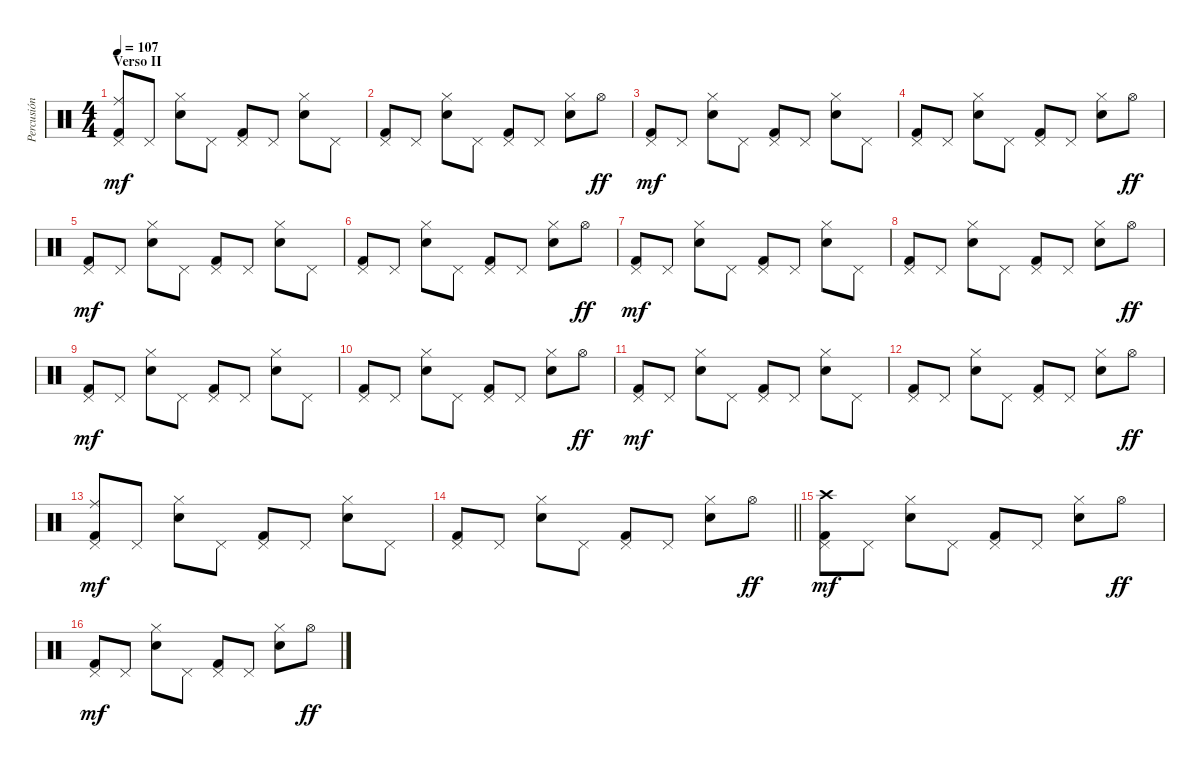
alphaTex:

\track ("Percusión" "Percusión") {instrument percussion}
\staff {score}
\articulation defaults
\ts (4 4)
\section ("" "Verso II")
\tempo 107
\clef neutral
\ks c
("Ride (middle)" "Pedal Hi-Hat (hit)" "Kick (hit) 2").8{dy mf} "Pedal Hi-Hat (hit)".8 ("Hi-Hat (closed)" "Snare (hit) 2").8 "Pedal Hi-Hat (hit)".8 ("Pedal Hi-Hat (hit)" "Kick (hit) 2").8 "Pedal Hi-Hat (hit)".8 ("Hi-Hat (closed)" "Snare (hit) 2").8 "Pedal Hi-Hat (hit)".8 |
("Pedal Hi-Hat (hit)" "Kick (hit) 2").8 "Pedal Hi-Hat (hit)".8 ("Hi-Hat (closed)" "Snare (hit) 2").8 "Pedal Hi-Hat (hit)".8 ("Pedal Hi-Hat (hit)" "Kick (hit) 2").8 "Pedal Hi-Hat (hit)".8 ("Hi-Hat (closed)" "Snare (hit) 2").8 "Hi-Hat (open)".8{dy ff} |
("Pedal Hi-Hat (hit)" "Kick (hit) 2").8{dy mf} "Pedal Hi-Hat (hit)".8 ("Hi-Hat (closed)" "Snare (hit) 2").8 "Pedal Hi-Hat (hit)".8 ("Pedal Hi-Hat (hit)" "Kick (hit) 2").8 "Pedal Hi-Hat (hit)".8 ("Hi-Hat (closed)" "Snare (hit) 2").8 "Pedal Hi-Hat (hit)".8 |
("Pedal Hi-Hat (hit)" "Kick (hit) 2").8 "Pedal Hi-Hat (hit)".8 ("Hi-Hat (closed)" "Snare (hit) 2").8 "Pedal Hi-Hat (hit)".8 ("Pedal Hi-Hat (hit)" "Kick (hit) 2").8 "Pedal Hi-Hat (hit)".8 ("Hi-Hat (closed)" "Snare (hit) 2").8 "Hi-Hat (open)".8{dy ff} |
("Pedal Hi-Hat (hit)" "Kick (hit) 2").8{dy mf} "Pedal Hi-Hat (hit)".8 ("Hi-Hat (closed)" "Snare (hit) 2").8 "Pedal Hi-Hat (hit)".8 ("Pedal Hi-Hat (hit)" "Kick (hit) 2").8 "Pedal Hi-Hat (hit)".8 ("Hi-Hat (closed)" "Snare (hit) 2").8 "Pedal Hi-Hat (hit)".8 |
("Pedal Hi-Hat (hit)" "Kick (hit) 2").8 "Pedal Hi-Hat (hit)".8 ("Hi-Hat (closed)" "Snare (hit) 2").8 "Pedal Hi-Hat (hit)".8 ("Pedal Hi-Hat (hit)" "Kick (hit) 2").8 "Pedal Hi-Hat (hit)".8 ("Hi-Hat (closed)" "Snare (hit) 2").8 "Hi-Hat (open)".8{dy ff} |
("Pedal Hi-Hat (hit)" "Kick (hit) 2").8{dy mf} "Pedal Hi-Hat (hit)".8 ("Hi-Hat (closed)" "Snare (hit) 2").8 "Pedal Hi-Hat (hit)".8 ("Pedal Hi-Hat (hit)" "Kick (hit) 2").8 "Pedal Hi-Hat (hit)".8 ("Hi-Hat (closed)" "Snare (hit) 2").8 "Pedal Hi-Hat (hit)".8 |
("Pedal Hi-Hat (hit)" "Kick (hit) 2").8 "Pedal Hi-Hat (hit)".8 ("Hi-Hat (closed)" "Snare (hit) 2").8 "Pedal Hi-Hat (hit)".8 ("Pedal Hi-Hat (hit)" "Kick (hit) 2").8 "Pedal Hi-Hat (hit)".8 ("Hi-Hat (closed)" "Snare (hit) 2").8 "Hi-Hat (open)".8{dy ff} |
("Pedal Hi-Hat (hit)" "Kick (hit) 2").8{dy mf} "Pedal Hi-Hat (hit)".8 ("Hi-Hat (closed)" "Snare (hit) 2").8 "Pedal Hi-Hat (hit)".8 ("Pedal Hi-Hat (hit)" "Kick (hit) 2").8 "Pedal Hi-Hat (hit)".8 ("Hi-Hat (closed)" "Snare (hit) 2").8 "Pedal Hi-Hat (hit)".8 |
("Pedal Hi-Hat (hit)" "Kick (hit) 2").8 "Pedal Hi-Hat (hit)".8 ("Hi-Hat (closed)" "Snare (hit) 2").8 "Pedal Hi-Hat (hit)".8 ("Pedal Hi-Hat (hit)" "Kick (hit) 2").8 "Pedal Hi-Hat (hit)".8 ("Hi-Hat (closed)" "Snare (hit) 2").8 "Hi-Hat (open)".8{dy ff} |
("Pedal Hi-Hat (hit)" "Kick (hit) 2").8{dy mf} "Pedal Hi-Hat (hit)".8 ("Hi-Hat (closed)" "Snare (hit) 2").8 "Pedal Hi-Hat (hit)".8 ("Pedal Hi-Hat (hit)" "Kick (hit) 2").8 "Pedal Hi-Hat (hit)".8 ("Hi-Hat (closed)" "Snare (hit) 2").8 "Pedal Hi-Hat (hit)".8 |
("Pedal Hi-Hat (hit)" "Kick (hit) 2").8 "Pedal Hi-Hat (hit)".8 ("Hi-Hat (closed)" "Snare (hit) 2").8 "Pedal Hi-Hat (hit)".8 ("Pedal Hi-Hat (hit)" "Kick (hit) 2").8 "Pedal Hi-Hat (hit)".8 ("Hi-Hat (closed)" "Snare (hit) 2").8 "Hi-Hat (open)".8{dy ff} |
("Ride (middle)" "Pedal Hi-Hat (hit)" "Kick (hit) 2").8{dy mf} "Pedal Hi-Hat (hit)".8 ("Hi-Hat (closed)" "Snare (hit) 2").8 "Pedal Hi-Hat (hit)".8 ("Pedal Hi-Hat (hit)" "Kick (hit) 2").8 "Pedal Hi-Hat (hit)".8 ("Hi-Hat (closed)" "Snare (hit) 2").8 "Pedal Hi-Hat (hit)".8 |
\barLineRight lightlight
("Pedal Hi-Hat (hit)" "Kick (hit) 2").8 "Pedal Hi-Hat (hit)".8 ("Hi-Hat (closed)" "Snare (hit) 2").8 "Pedal Hi-Hat (hit)".8 ("Pedal Hi-Hat (hit)" "Kick (hit) 2").8 "Pedal Hi-Hat (hit)".8 ("Hi-Hat (closed)" "Snare (hit) 2").8 "Hi-Hat (open)".8{dy ff} |
("Crash high (hit)" "Pedal Hi-Hat (hit)" "Kick (hit) 2").8{dy mf} "Pedal Hi-Hat (hit)".8 ("Hi-Hat (closed)" "Snare (hit) 2").8 "Pedal Hi-Hat (hit)".8 ("Pedal Hi-Hat (hit)" "Kick (hit) 2").8 "Pedal Hi-Hat (hit)".8 ("Hi-Hat (closed)" "Snare (hit) 2").8 "Hi-Hat (open)".8{dy ff} |
("Pedal Hi-Hat (hit)" "Kick (hit) 2").8{dy mf} "Pedal Hi-Hat (hit)".8 ("Hi-Hat (closed)" "Snare (hit) 2").8 "Pedal Hi-Hat (hit)".8 ("Pedal Hi-Hat (hit)" "Kick (hit) 2").8 "Pedal Hi-Hat (hit)".8 ("Hi-Hat (closed)" "Snare (hit) 2").8 "Hi-Hat (open)".8{dy ff}
